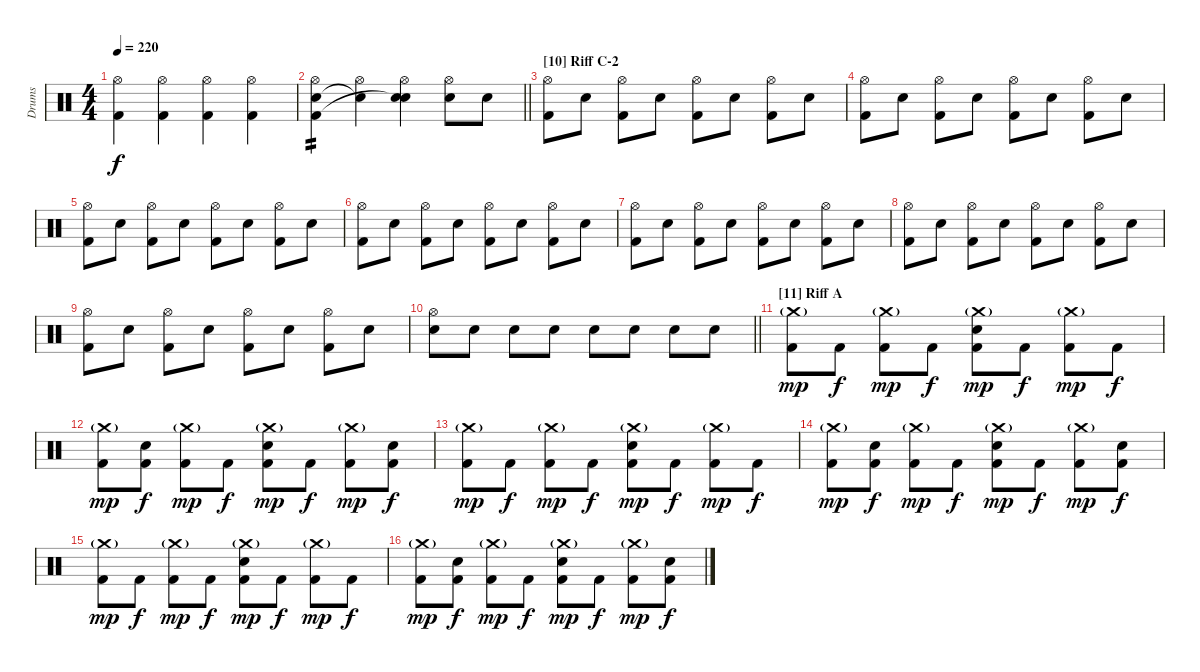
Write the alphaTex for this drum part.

\track ("Drums" "Drums") {instrument percussion}
\staff {score}
\articulation defaults
\ts (4 4)
\tempo 220
\clef neutral
\ks c
("Hi-Hat (open)" "Kick (hit) 2").4{dy f} ("Hi-Hat (open)" "Kick (hit) 2").4 ("Hi-Hat (open)" "Kick (hit) 2").4 ("Hi-Hat (open)" "Kick (hit) 2").4 |
\barLineRight lightlight
("Hi-Hat (open)" "Snare (hit) 2" "Kick (hit) 2").4{tp 2} ("Hi-Hat (open)" "Snare (hit)"{t}).4 ("Hi-Hat (open)" "Snare (hit) 2" "Snare (hit)"{t}).4 ("Hi-Hat (open)" "Snare (hit) 2").8 "Snare (hit) 2".8 |
\section ("" "[10] Riff C-2")
("Hi-Hat (open)" "Kick (hit) 2").8 "Snare (hit) 2".8 ("Hi-Hat (open)" "Kick (hit) 2").8 "Snare (hit) 2".8 ("Hi-Hat (open)" "Kick (hit) 2").8 "Snare (hit) 2".8 ("Hi-Hat (open)" "Kick (hit) 2").8 "Snare (hit) 2".8 |
("Hi-Hat (open)" "Kick (hit) 2").8 "Snare (hit) 2".8 ("Hi-Hat (open)" "Kick (hit) 2").8 "Snare (hit) 2".8 ("Hi-Hat (open)" "Kick (hit) 2").8 "Snare (hit) 2".8 ("Hi-Hat (open)" "Kick (hit) 2").8 "Snare (hit) 2".8 |
("Hi-Hat (open)" "Kick (hit) 2").8 "Snare (hit) 2".8 ("Hi-Hat (open)" "Kick (hit) 2").8 "Snare (hit) 2".8 ("Hi-Hat (open)" "Kick (hit) 2").8 "Snare (hit) 2".8 ("Hi-Hat (open)" "Kick (hit) 2").8 "Snare (hit) 2".8 |
("Hi-Hat (open)" "Kick (hit) 2").8 "Snare (hit) 2".8 ("Hi-Hat (open)" "Kick (hit) 2").8 "Snare (hit) 2".8 ("Hi-Hat (open)" "Kick (hit) 2").8 "Snare (hit) 2".8 ("Hi-Hat (open)" "Kick (hit) 2").8 "Snare (hit) 2".8 |
("Hi-Hat (open)" "Kick (hit) 2").8 "Snare (hit) 2".8 ("Hi-Hat (open)" "Kick (hit) 2").8 "Snare (hit) 2".8 ("Hi-Hat (open)" "Kick (hit) 2").8 "Snare (hit) 2".8 ("Hi-Hat (open)" "Kick (hit) 2").8 "Snare (hit) 2".8 |
("Hi-Hat (open)" "Kick (hit) 2").8 "Snare (hit) 2".8 ("Hi-Hat (open)" "Kick (hit) 2").8 "Snare (hit) 2".8 ("Hi-Hat (open)" "Kick (hit) 2").8 "Snare (hit) 2".8 ("Hi-Hat (open)" "Kick (hit) 2").8 "Snare (hit) 2".8 |
("Hi-Hat (open)" "Kick (hit) 2").8 "Snare (hit) 2".8 ("Hi-Hat (open)" "Kick (hit) 2").8 "Snare (hit) 2".8 ("Hi-Hat (open)" "Kick (hit) 2").8 "Snare (hit) 2".8 ("Hi-Hat (open)" "Kick (hit) 2").8 "Snare (hit) 2".8 |
\barLineRight lightlight
("Hi-Hat (open)" "Snare (hit) 2").8 "Snare (hit) 2".8 "Snare (hit) 2".8 "Snare (hit) 2".8 "Snare (hit) 2".8 "Snare (hit) 2".8 "Snare (hit) 2".8 "Snare (hit) 2".8 |
\section ("" "[11] Riff A")
("Crash medium (hit)"{g} "Kick (hit) 2").8{dy mp} "Kick (hit) 2".8{dy f} ("Crash medium (hit)"{g} "Kick (hit) 2").8{dy mp} "Kick (hit) 2".8{dy f} ("Crash medium (hit)"{g} "Snare (hit) 2" "Kick (hit) 2").8{dy mp} "Kick (hit) 2".8{dy f} ("Crash medium (hit)"{g} "Kick (hit) 2").8{dy mp} "Kick (hit) 2".8{dy f} |
("Crash medium (hit)"{g} "Kick (hit) 2").8{dy mp} ("Snare (hit) 2" "Kick (hit) 2").8{dy f} ("Crash medium (hit)"{g} "Kick (hit) 2").8{dy mp} "Kick (hit) 2".8{dy f} ("Crash medium (hit)"{g} "Snare (hit) 2" "Kick (hit) 2").8{dy mp} "Kick (hit) 2".8{dy f} ("Crash medium (hit)"{g} "Kick (hit) 2").8{dy mp} ("Snare (hit) 2" "Kick (hit) 2").8{dy f} |
("Crash medium (hit)"{g} "Kick (hit) 2").8{dy mp} "Kick (hit) 2".8{dy f} ("Crash medium (hit)"{g} "Kick (hit) 2").8{dy mp} "Kick (hit) 2".8{dy f} ("Crash medium (hit)"{g} "Snare (hit) 2" "Kick (hit) 2").8{dy mp} "Kick (hit) 2".8{dy f} ("Crash medium (hit)"{g} "Kick (hit) 2").8{dy mp} "Kick (hit) 2".8{dy f} |
("Crash medium (hit)"{g} "Kick (hit) 2").8{dy mp} ("Snare (hit) 2" "Kick (hit) 2").8{dy f} ("Crash medium (hit)"{g} "Kick (hit) 2").8{dy mp} "Kick (hit) 2".8{dy f} ("Crash medium (hit)"{g} "Snare (hit) 2" "Kick (hit) 2").8{dy mp} "Kick (hit) 2".8{dy f} ("Crash medium (hit)"{g} "Kick (hit) 2").8{dy mp} ("Snare (hit) 2" "Kick (hit) 2").8{dy f} |
("Crash medium (hit)"{g} "Kick (hit) 2").8{dy mp} "Kick (hit) 2".8{dy f} ("Crash medium (hit)"{g} "Kick (hit) 2").8{dy mp} "Kick (hit) 2".8{dy f} ("Crash medium (hit)"{g} "Snare (hit) 2" "Kick (hit) 2").8{dy mp} "Kick (hit) 2".8{dy f} ("Crash medium (hit)"{g} "Kick (hit) 2").8{dy mp} "Kick (hit) 2".8{dy f} |
("Crash medium (hit)"{g} "Kick (hit) 2").8{dy mp} ("Snare (hit) 2" "Kick (hit) 2").8{dy f} ("Crash medium (hit)"{g} "Kick (hit) 2").8{dy mp} "Kick (hit) 2".8{dy f} ("Crash medium (hit)"{g} "Snare (hit) 2" "Kick (hit) 2").8{dy mp} "Kick (hit) 2".8{dy f} ("Crash medium (hit)"{g} "Kick (hit) 2").8{dy mp} ("Snare (hit) 2" "Kick (hit) 2").8{dy f}
